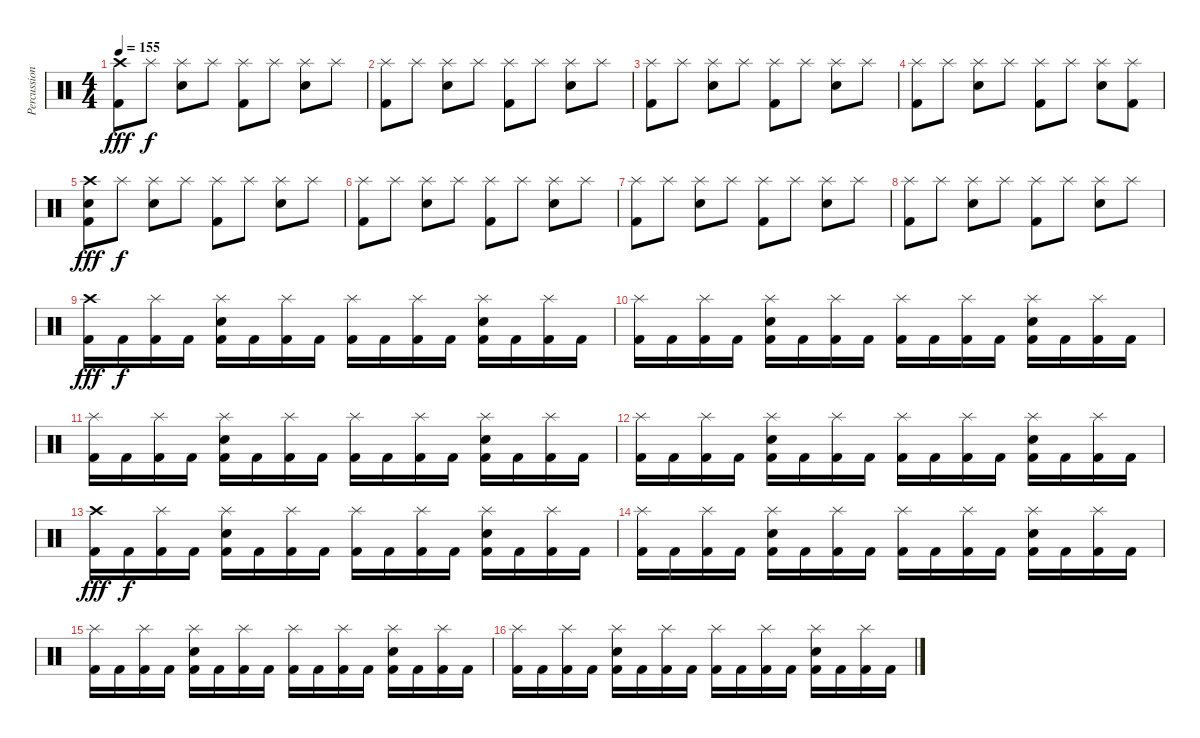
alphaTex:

\track ("Percussion" "Percussion") {instrument percussion}
\staff {score}
\articulation defaults
\ts (4 4)
\tempo 155
\clef neutral
\ks c
("Crash high (hit)" "Kick (hit) 2").8{dy fff} "Splash (hit)".8{dy f} ("Splash (hit)" "Electric Snare (hit)").8 "Splash (hit)".8 ("Splash (hit)" "Kick (hit) 2").8 "Splash (hit)".8 ("Splash (hit)" "Electric Snare (hit)").8 "Splash (hit)".8 |
("Splash (hit)" "Kick (hit) 2").8 "Splash (hit)".8 ("Splash (hit)" "Electric Snare (hit)").8 "Splash (hit)".8 ("Splash (hit)" "Kick (hit) 2").8 "Splash (hit)".8 ("Splash (hit)" "Electric Snare (hit)").8 "Splash (hit)".8 |
("Splash (hit)" "Kick (hit) 2").8 "Splash (hit)".8 ("Splash (hit)" "Electric Snare (hit)").8 "Splash (hit)".8 ("Splash (hit)" "Kick (hit) 2").8 "Splash (hit)".8 ("Splash (hit)" "Electric Snare (hit)").8 "Splash (hit)".8 |
("Splash (hit)" "Kick (hit) 2").8 "Splash (hit)".8 ("Splash (hit)" "Electric Snare (hit)").8 "Splash (hit)".8 ("Splash (hit)" "Kick (hit) 2").8 "Splash (hit)".8 ("Splash (hit)" "Electric Snare (hit)").8 ("Splash (hit)" "Kick (hit) 2").8 |
("Crash high (hit)" "Electric Snare (hit)" "Kick (hit) 2").8{dy fff} "Splash (hit)".8{dy f} ("Splash (hit)" "Electric Snare (hit)").8 "Splash (hit)".8 ("Splash (hit)" "Kick (hit) 2").8 "Splash (hit)".8 ("Splash (hit)" "Electric Snare (hit)").8 "Splash (hit)".8 |
("Splash (hit)" "Kick (hit) 2").8 "Splash (hit)".8 ("Splash (hit)" "Electric Snare (hit)").8 "Splash (hit)".8 ("Splash (hit)" "Kick (hit) 2").8 "Splash (hit)".8 ("Splash (hit)" "Electric Snare (hit)").8 "Splash (hit)".8 |
("Splash (hit)" "Kick (hit) 2").8 "Splash (hit)".8 ("Splash (hit)" "Electric Snare (hit)").8 "Splash (hit)".8 ("Splash (hit)" "Kick (hit) 2").8 "Splash (hit)".8 ("Splash (hit)" "Electric Snare (hit)").8 "Splash (hit)".8 |
("Splash (hit)" "Kick (hit) 2").8 "Splash (hit)".8 ("Splash (hit)" "Electric Snare (hit)").8 "Splash (hit)".8 ("Splash (hit)" "Kick (hit) 2").8 "Splash (hit)".8 ("Splash (hit)" "Electric Snare (hit)").8 "Splash (hit)".8 |
("Crash high (hit)" "Kick (hit) 2").16{dy fff} "Kick (hit) 2".16{dy f} ("Splash (hit)" "Kick (hit) 2").16 "Kick (hit) 2".16 ("Splash (hit)" "Electric Snare (hit)" "Kick (hit) 2").16 "Kick (hit) 2".16 ("Splash (hit)" "Kick (hit) 2").16 "Kick (hit) 2".16 ("Splash (hit)" "Kick (hit) 2").16 "Kick (hit) 2".16 ("Splash (hit)" "Kick (hit) 2").16 "Kick (hit) 2".16 ("Splash (hit)" "Electric Snare (hit)" "Kick (hit) 2").16 "Kick (hit) 2".16 ("Splash (hit)" "Kick (hit) 2").16 "Kick (hit) 2".16 |
("Splash (hit)" "Kick (hit) 2").16 "Kick (hit) 2".16 ("Splash (hit)" "Kick (hit) 2").16 "Kick (hit) 2".16 ("Splash (hit)" "Electric Snare (hit)" "Kick (hit) 2").16 "Kick (hit) 2".16 ("Splash (hit)" "Kick (hit) 2").16 "Kick (hit) 2".16 ("Splash (hit)" "Kick (hit) 2").16 "Kick (hit) 2".16 ("Splash (hit)" "Kick (hit) 2").16 "Kick (hit) 2".16 ("Splash (hit)" "Electric Snare (hit)" "Kick (hit) 2").16 "Kick (hit) 2".16 ("Splash (hit)" "Kick (hit) 2").16 "Kick (hit) 2".16 |
("Splash (hit)" "Kick (hit) 2").16 "Kick (hit) 2".16 ("Splash (hit)" "Kick (hit) 2").16 "Kick (hit) 2".16 ("Splash (hit)" "Electric Snare (hit)" "Kick (hit) 2").16 "Kick (hit) 2".16 ("Splash (hit)" "Kick (hit) 2").16 "Kick (hit) 2".16 ("Splash (hit)" "Kick (hit) 2").16 "Kick (hit) 2".16 ("Splash (hit)" "Kick (hit) 2").16 "Kick (hit) 2".16 ("Splash (hit)" "Electric Snare (hit)" "Kick (hit) 2").16 "Kick (hit) 2".16 ("Splash (hit)" "Kick (hit) 2").16 "Kick (hit) 2".16 |
("Splash (hit)" "Kick (hit) 2").16 "Kick (hit) 2".16 ("Splash (hit)" "Kick (hit) 2").16 "Kick (hit) 2".16 ("Splash (hit)" "Electric Snare (hit)" "Kick (hit) 2").16 "Kick (hit) 2".16 ("Splash (hit)" "Kick (hit) 2").16 "Kick (hit) 2".16 ("Splash (hit)" "Kick (hit) 2").16 "Kick (hit) 2".16 ("Splash (hit)" "Kick (hit) 2").16 "Kick (hit) 2".16 ("Splash (hit)" "Electric Snare (hit)" "Kick (hit) 2").16 "Kick (hit) 2".16 ("Splash (hit)" "Kick (hit) 2").16 "Kick (hit) 2".16 |
("Crash high (hit)" "Kick (hit) 2").16{dy fff} "Kick (hit) 2".16{dy f} ("Splash (hit)" "Kick (hit) 2").16 "Kick (hit) 2".16 ("Splash (hit)" "Electric Snare (hit)" "Kick (hit) 2").16 "Kick (hit) 2".16 ("Splash (hit)" "Kick (hit) 2").16 "Kick (hit) 2".16 ("Splash (hit)" "Kick (hit) 2").16 "Kick (hit) 2".16 ("Splash (hit)" "Kick (hit) 2").16 "Kick (hit) 2".16 ("Splash (hit)" "Electric Snare (hit)" "Kick (hit) 2").16 "Kick (hit) 2".16 ("Splash (hit)" "Kick (hit) 2").16 "Kick (hit) 2".16 |
("Splash (hit)" "Kick (hit) 2").16 "Kick (hit) 2".16 ("Splash (hit)" "Kick (hit) 2").16 "Kick (hit) 2".16 ("Splash (hit)" "Electric Snare (hit)" "Kick (hit) 2").16 "Kick (hit) 2".16 ("Splash (hit)" "Kick (hit) 2").16 "Kick (hit) 2".16 ("Splash (hit)" "Kick (hit) 2").16 "Kick (hit) 2".16 ("Splash (hit)" "Kick (hit) 2").16 "Kick (hit) 2".16 ("Splash (hit)" "Electric Snare (hit)" "Kick (hit) 2").16 "Kick (hit) 2".16 ("Splash (hit)" "Kick (hit) 2").16 "Kick (hit) 2".16 |
("Splash (hit)" "Kick (hit) 2").16 "Kick (hit) 2".16 ("Splash (hit)" "Kick (hit) 2").16 "Kick (hit) 2".16 ("Splash (hit)" "Electric Snare (hit)" "Kick (hit) 2").16 "Kick (hit) 2".16 ("Splash (hit)" "Kick (hit) 2").16 "Kick (hit) 2".16 ("Splash (hit)" "Kick (hit) 2").16 "Kick (hit) 2".16 ("Splash (hit)" "Kick (hit) 2").16 "Kick (hit) 2".16 ("Splash (hit)" "Electric Snare (hit)" "Kick (hit) 2").16 "Kick (hit) 2".16 ("Splash (hit)" "Kick (hit) 2").16 "Kick (hit) 2".16 |
("Splash (hit)" "Kick (hit) 2").16 "Kick (hit) 2".16 ("Splash (hit)" "Kick (hit) 2").16 "Kick (hit) 2".16 ("Splash (hit)" "Electric Snare (hit)" "Kick (hit) 2").16 "Kick (hit) 2".16 ("Splash (hit)" "Kick (hit) 2").16 "Kick (hit) 2".16 ("Splash (hit)" "Kick (hit) 2").16 "Kick (hit) 2".16 ("Splash (hit)" "Kick (hit) 2").16 "Kick (hit) 2".16 ("Splash (hit)" "Electric Snare (hit)" "Kick (hit) 2").16 "Kick (hit) 2".16 ("Splash (hit)" "Kick (hit) 2").16 "Kick (hit) 2".16
